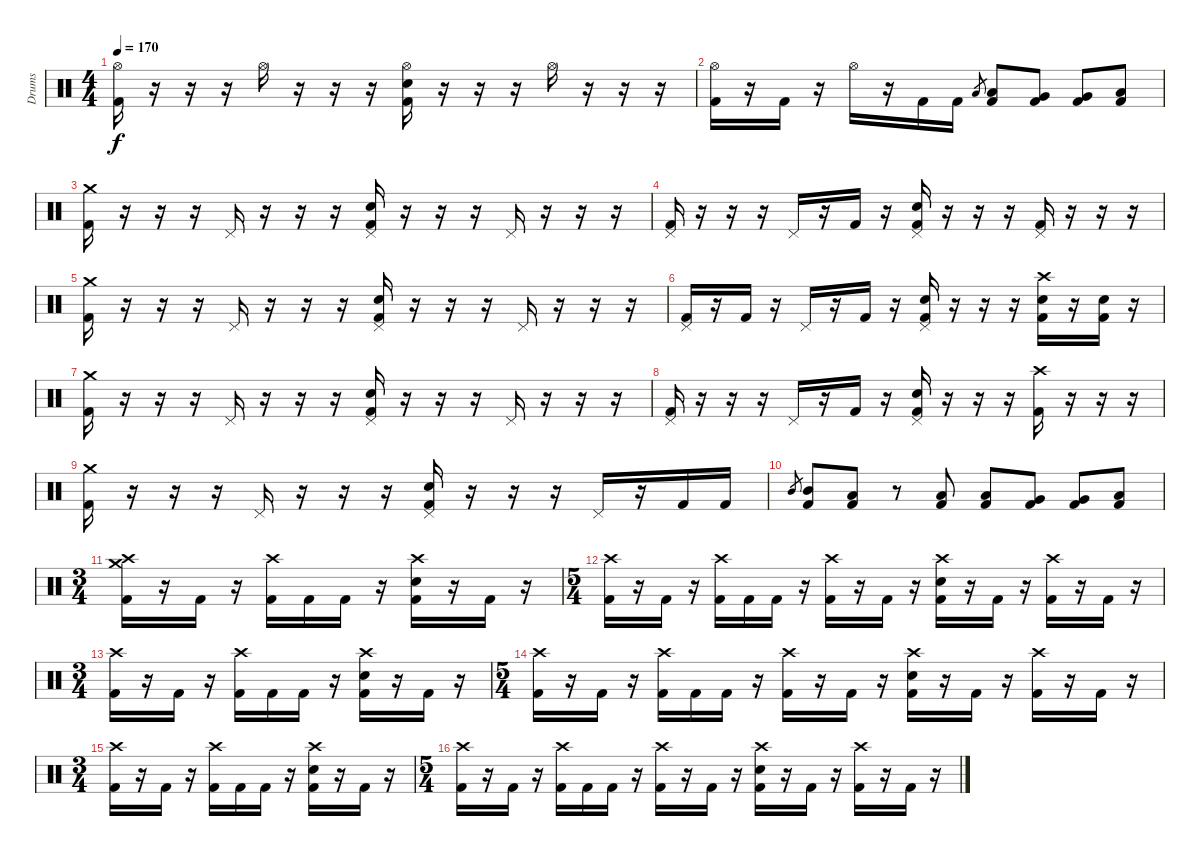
\track ("Drums" "Drums") {instrument percussion}
\staff {score}
\articulation defaults
\ts (4 4)
\tempo 170
\clef neutral
\ks c
("Hi-Hat (open)" "Kick (hit) 2").16{dy f} r.16 r.16 r.16 "Hi-Hat (open)".16 r.16 r.16 r.16 ("Hi-Hat (open)" "Electric Snare (hit)" "Kick (hit) 2").16 r.16 r.16 r.16 "Hi-Hat (open)".16 r.16 r.16 r.16 |
("Hi-Hat (open)" "Kick (hit) 2").16 r.16 "Kick (hit) 2".16 r.16 "Hi-Hat (open)".16 r.16 "Kick (hit) 2".16 "Kick (hit) 2".16 "Low Tom (hit)".8{gr} ("Low Tom (hit)" "Kick (hit) 2").8 ("Very Low Tom (hit)" "Kick (hit) 2").8 ("Very Low Tom (hit)" "Kick (hit) 2").8 ("Low Floor Tom (hit)" "Kick (hit) 2").8 |
\section ("" "")
("Crash medium (hit)" "Kick (hit) 2").16 r.16 r.16 r.16 "Pedal Hi-Hat (hit)".16 r.16 r.16 r.16 ("Pedal Hi-Hat (hit)" "Electric Snare (hit)" "Kick (hit) 2").16 r.16 r.16 r.16 "Pedal Hi-Hat (hit)".16 r.16 r.16 r.16 |
("Pedal Hi-Hat (hit)" "Kick (hit) 2").16 r.16 r.16 r.16 "Pedal Hi-Hat (hit)".16 r.16 "Kick (hit) 2".16 r.16 ("Pedal Hi-Hat (hit)" "Electric Snare (hit)" "Kick (hit) 2").16 r.16 r.16 r.16 ("Pedal Hi-Hat (hit)" "Kick (hit) 2").16 r.16 r.16 r.16 |
("Crash medium (hit)" "Kick (hit) 2").16 r.16 r.16 r.16 "Pedal Hi-Hat (hit)".16 r.16 r.16 r.16 ("Pedal Hi-Hat (hit)" "Electric Snare (hit)" "Kick (hit) 2").16 r.16 r.16 r.16 "Pedal Hi-Hat (hit)".16 r.16 r.16 r.16 |
("Pedal Hi-Hat (hit)" "Kick (hit) 2").16 r.16 "Kick (hit) 2".16 r.16 "Pedal Hi-Hat (hit)".16 r.16 "Kick (hit) 2".16 r.16 ("Pedal Hi-Hat (hit)" "Electric Snare (hit)" "Kick (hit) 2").16 r.16 r.16 r.16 ("Crash high (hit)" "Electric Snare (hit)" "Kick (hit) 2").16 r.16 ("Electric Snare (hit)" "Kick (hit) 2").16 r.16 |
("Crash medium (hit)" "Kick (hit) 2").16 r.16 r.16 r.16 "Pedal Hi-Hat (hit)".16 r.16 r.16 r.16 ("Pedal Hi-Hat (hit)" "Electric Snare (hit)" "Kick (hit) 2").16 r.16 r.16 r.16 "Pedal Hi-Hat (hit)".16 r.16 r.16 r.16 |
("Pedal Hi-Hat (hit)" "Kick (hit) 2").16 r.16 r.16 r.16 "Pedal Hi-Hat (hit)".16 r.16 "Kick (hit) 2".16 r.16 ("Pedal Hi-Hat (hit)" "Electric Snare (hit)" "Kick (hit) 2").16 r.16 r.16 r.16 ("Crash high (hit)" "Kick (hit) 2").16 r.16 r.16 r.16 |
("Crash medium (hit)" "Kick (hit) 2").16 r.16 r.16 r.16 "Pedal Hi-Hat (hit)".16 r.16 r.16 r.16 ("Pedal Hi-Hat (hit)" "Electric Snare (hit)" "Kick (hit) 2").16 r.16 r.16 r.16 "Pedal Hi-Hat (hit)".16 r.16 "Kick (hit) 2".16 "Kick (hit) 2".16 |
"Mid Tom (hit)".8{gr} ("Mid Tom (hit)" "Kick (hit) 2").8 ("Low Tom (hit)" "Kick (hit) 2").8 r.8 ("Low Tom (hit)" "Kick (hit) 2").8 ("Low Tom (hit)" "Kick (hit) 2").8 ("Very Low Tom (hit)" "Kick (hit) 2").8 ("Very Low Tom (hit)" "Kick (hit) 2").8 ("Low Floor Tom (hit)" "Kick (hit) 2").8 |
\ts (3 4)
\section ("" "")
("Crash medium (hit)" "Crash high (hit)" "Kick (hit) 2").16 r.16 "Kick (hit) 2".16 r.16 ("Crash high (hit)" "Kick (hit) 2").16 "Kick (hit) 2".16 "Kick (hit) 2".16 r.16 ("Crash high (hit)" "Electric Snare (hit)" "Kick (hit) 2").16 r.16 "Kick (hit) 2".16 r.16 |
\ts (5 4)
("Crash high (hit)" "Kick (hit) 2").16 r.16 "Kick (hit) 2".16 r.16 ("Crash high (hit)" "Kick (hit) 2").16 "Kick (hit) 2".16 "Kick (hit) 2".16 r.16 ("Crash high (hit)" "Kick (hit) 2").16 r.16 "Kick (hit) 2".16 r.16 ("Crash high (hit)" "Electric Snare (hit)" "Kick (hit) 2").16 r.16 "Kick (hit) 2".16 r.16 ("Crash high (hit)" "Kick (hit) 2").16 r.16 "Kick (hit) 2".16 r.16 |
\ts (3 4)
("Crash high (hit)" "Kick (hit) 2").16 r.16 "Kick (hit) 2".16 r.16 ("Crash high (hit)" "Kick (hit) 2").16 "Kick (hit) 2".16 "Kick (hit) 2".16 r.16 ("Crash high (hit)" "Electric Snare (hit)" "Kick (hit) 2").16 r.16 "Kick (hit) 2".16 r.16 |
\ts (5 4)
("Crash high (hit)" "Kick (hit) 2").16 r.16 "Kick (hit) 2".16 r.16 ("Crash high (hit)" "Kick (hit) 2").16 "Kick (hit) 2".16 "Kick (hit) 2".16 r.16 ("Crash high (hit)" "Kick (hit) 2").16 r.16 "Kick (hit) 2".16 r.16 ("Crash high (hit)" "Electric Snare (hit)" "Kick (hit) 2").16 r.16 "Kick (hit) 2".16 r.16 ("Crash high (hit)" "Kick (hit) 2").16 r.16 "Kick (hit) 2".16 r.16 |
\ts (3 4)
("Crash high (hit)" "Kick (hit) 2").16 r.16 "Kick (hit) 2".16 r.16 ("Crash high (hit)" "Kick (hit) 2").16 "Kick (hit) 2".16 "Kick (hit) 2".16 r.16 ("Crash high (hit)" "Electric Snare (hit)" "Kick (hit) 2").16 r.16 "Kick (hit) 2".16 r.16 |
\ts (5 4)
("Crash high (hit)" "Kick (hit) 2").16 r.16 "Kick (hit) 2".16 r.16 ("Crash high (hit)" "Kick (hit) 2").16 "Kick (hit) 2".16 "Kick (hit) 2".16 r.16 ("Crash high (hit)" "Kick (hit) 2").16 r.16 "Kick (hit) 2".16 r.16 ("Crash high (hit)" "Electric Snare (hit)" "Kick (hit) 2").16 r.16 "Kick (hit) 2".16 r.16 ("Crash high (hit)" "Kick (hit) 2").16 r.16 "Kick (hit) 2".16 r.16
